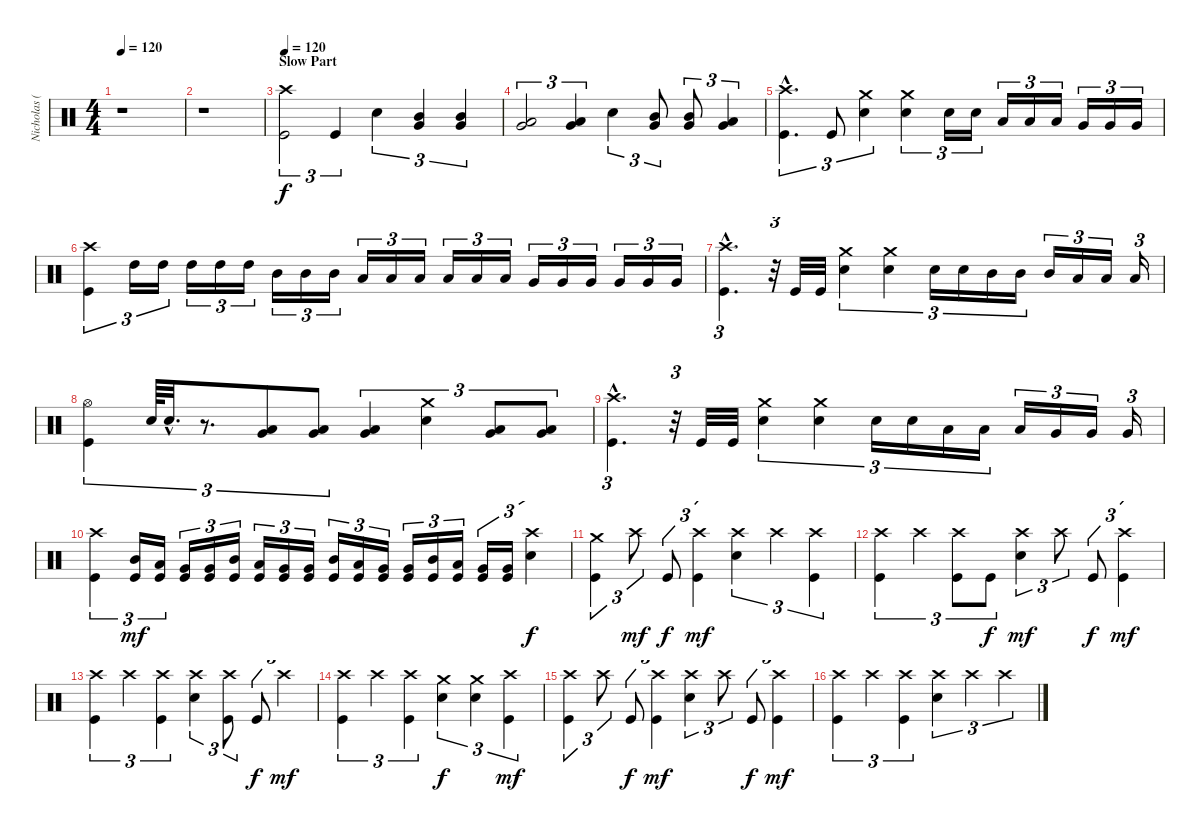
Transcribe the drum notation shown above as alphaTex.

\track ("Nicholas (Drums)" "Nicholas (") {instrument percussion}
\staff {score}
\articulation defaults
\ts (4 4)
\tempo 120
\clef neutral
\ks c
r.1{dy p} |
r.1 |
\section ("" "Slow Part")
\tempo 120
("Crash high (hit)" "Kick (hit)").2{tu (3 2) dy f} "Kick (hit)".4{tu (3 2)} "Electric Snare (hit)".4{tu (3 2)} ("Mid Tom (hit)" "Very Low Tom (hit)").4{tu (3 2)} ("Mid Tom (hit)" "Very Low Tom (hit)").4{tu (3 2)} |
("Low Tom (hit)" "Very Low Tom (hit)").2{tu (3 2)} ("Low Tom (hit)" "Very Low Tom (hit)").4{tu (3 2)} "Electric Snare (hit)".4{tu (3 2)} ("Mid Tom (hit)" "Very Low Tom (hit)").8{tu (3 2)} ("Mid Tom (hit)" "Very Low Tom (hit)").8{tu (3 2)} ("Low Tom (hit)" "Very Low Tom (hit)").4{tu (3 2)} |
("Crash high (hit)"{hac} "Kick (hit)"{hac}).4{d tu (3 2)} "Kick (hit)".8{tu (3 2)} ("Crash medium (hit)" "Electric Snare (hit)").4{tu (3 2)} ("Crash medium (hit)" "Electric Snare (hit)").4{tu (3 2)} "Electric Snare (hit)".16{tu (3 2)} "Electric Snare (hit)".16{tu (3 2)} "Low Tom (hit)".16{tu (3 2)} "Low Tom (hit)".16{tu (3 2)} "Low Tom (hit)".16{tu (3 2)} "Very Low Tom (hit)".16{tu (3 2)} "Very Low Tom (hit)".16{tu (3 2)} "Very Low Tom (hit)".16{tu (3 2)} |
("Crash high (hit)" "Kick (hit)").4{tu (3 2)} "High Tom (hit)".16{tu (3 2)} "High Tom (hit)".16{tu (3 2)} "High Tom (hit)".16{tu (3 2)} "High Tom (hit)".16{tu (3 2)} "High Tom (hit)".16{tu (3 2)} "Mid Tom (hit)".16{tu (3 2)} "Mid Tom (hit)".16{tu (3 2)} "Mid Tom (hit)".16{tu (3 2)} "Low Tom (hit)".16{tu (3 2)} "Low Tom (hit)".16{tu (3 2)} "Low Tom (hit)".16{tu (3 2)} "Low Tom (hit)".16{tu (3 2)} "Low Tom (hit)".16{tu (3 2)} "Low Tom (hit)".16{tu (3 2)} "Very Low Tom (hit)".16{tu (3 2)} "Very Low Tom (hit)".16{tu (3 2)} "Very Low Tom (hit)".16{tu (3 2)} "Very Low Tom (hit)".16{tu (3 2)} "Very Low Tom (hit)".16{tu (3 2)} "Very Low Tom (hit)".16{tu (3 2)} |
("Crash high (hit)"{hac} "Kick (hit)"{hac}).4{d tu (3 2)} r.32{tu (3 2)} "Kick (hit)".32 "Kick (hit)".32 ("Crash medium (hit)" "Electric Snare (hit)").4{tu (3 2)} ("Crash medium (hit)" "Electric Snare (hit)").4{tu (3 2)} "Electric Snare (hit)".16{tu (3 2)} "Electric Snare (hit)".16{tu (3 2)} "Mid Tom (hit)".16{tu (3 2)} "Mid Tom (hit)".16{tu (3 2)} "Mid Tom (hit)".16{tu (3 2)} "Low Tom (hit)".16{tu (3 2)} "Low Tom (hit)".16{tu (3 2)} "Low Tom (hit)".16{tu (3 2)} |
("Hi-Hat (open)" "Kick (hit)").4{tu (3 2)} "Electric Snare (hit)".64{tu (3 2)} "Electric Snare (hit)"{hac}.32{d tu (3 2)} r.8{d tu (3 2)} ("Low Tom (hit)" "Very Low Tom (hit)").8{tu (3 2)} ("Low Tom (hit)" "Very Low Tom (hit)").8{tu (3 2)} ("Low Tom (hit)" "Very Low Tom (hit)").4{tu (3 2)} ("Crash medium (hit)" "Electric Snare (hit)").4{tu (3 2)} ("Low Tom (hit)" "Very Low Tom (hit)").8{tu (3 2)} ("Low Tom (hit)" "Very Low Tom (hit)").8{tu (3 2)} |
("Crash high (hit)"{hac} "Kick (hit)"{hac}).4{d tu (3 2)} r.32{tu (3 2)} "Kick (hit)".32 "Kick (hit)".32 ("Crash medium (hit)" "Electric Snare (hit)").4{tu (3 2)} ("Crash medium (hit)" "Electric Snare (hit)").4{tu (3 2)} "Electric Snare (hit)".16{tu (3 2)} "Electric Snare (hit)".16{tu (3 2)} "Low Tom (hit)".16{tu (3 2)} "Low Tom (hit)".16{tu (3 2)} "Low Tom (hit)".16{tu (3 2)} "Very Low Tom (hit)".16{tu (3 2)} "Very Low Tom (hit)".16{tu (3 2)} "Very Low Tom (hit)".16{tu (3 2)} |
("Crash high (hit)" "Kick (hit)").4{tu (3 2)} ("Mid Tom (hit)" "Kick (hit)").16{tu (3 2) dy mf} ("Low Tom (hit)" "Kick (hit)").16{tu (3 2)} ("Very Low Tom (hit)" "Kick (hit)").16{tu (3 2)} ("Very Low Tom (hit)" "Kick (hit)").16{tu (3 2)} ("Mid Tom (hit)" "Kick (hit)").16{tu (3 2)} ("Low Tom (hit)" "Kick (hit)").16{tu (3 2)} ("Very Low Tom (hit)" "Kick (hit)").16{tu (3 2)} ("Very Low Tom (hit)" "Kick (hit)").16{tu (3 2)} ("Mid Tom (hit)" "Kick (hit)").16{tu (3 2)} ("Low Tom (hit)" "Kick (hit)").16{tu (3 2)} ("Very Low Tom (hit)" "Kick (hit)").16{tu (3 2)} ("Very Low Tom (hit)" "Kick (hit)").16{tu (3 2)} ("Mid Tom (hit)" "Kick (hit)").16{tu (3 2)} ("Low Tom (hit)" "Kick (hit)").16{tu (3 2)} ("Very Low Tom (hit)" "Kick (hit)").16{tu (3 2)} ("Very Low Tom (hit)" "Kick (hit)").16{tu (3 2)} ("Crash high (hit)" "Electric Snare (hit)").4{tu (3 2) dy f} |
("Crash medium (hit)" "Kick (hit)").4{tu (3 2)} "Crash high (hit)".8{tu (3 2) dy mf} "Kick (hit)".8{tu (3 2) dy f} ("Crash high (hit)" "Kick (hit)").4{tu (3 2) dy mf} ("Crash high (hit)" "Electric Snare (hit)").4{tu (3 2)} "Crash high (hit)".4{tu (3 2)} ("Crash high (hit)" "Kick (hit)").4{tu (3 2)} |
("Crash high (hit)" "Kick (hit)").4{tu (3 2)} "Crash high (hit)".4{tu (3 2)} ("Crash high (hit)" "Kick (hit)").8{tu (3 2)} "Kick (hit)".8{tu (3 2) dy f} ("Crash high (hit)" "Electric Snare (hit)").4{tu (3 2) dy mf} "Crash high (hit)".8{tu (3 2)} "Kick (hit)".8{tu (3 2) dy f} ("Crash high (hit)" "Kick (hit)").4{tu (3 2) dy mf} |
("Crash high (hit)" "Kick (hit)").4{tu (3 2)} "Crash high (hit)".4{tu (3 2)} ("Crash high (hit)" "Kick (hit)").4{tu (3 2)} ("Crash high (hit)" "Electric Snare (hit)").4{tu (3 2)} ("Crash high (hit)" "Kick (hit)").8{tu (3 2)} "Kick (hit)".8{tu (3 2) dy f} "Crash high (hit)".4{tu (3 2) dy mf} |
("Crash high (hit)" "Kick (hit)").4{tu (3 2)} "Crash high (hit)".4{tu (3 2)} ("Crash high (hit)" "Kick (hit)").4{tu (3 2)} ("Crash medium (hit)" "Electric Snare (hit)").4{tu (3 2) dy f} ("Crash medium (hit)" "Electric Snare (hit)").4{tu (3 2)} ("Crash high (hit)" "Kick (hit)").4{tu (3 2) dy mf} |
("Crash high (hit)" "Kick (hit)").4{tu (3 2)} "Crash high (hit)".8{tu (3 2)} "Kick (hit)".8{tu (3 2) dy f} ("Crash high (hit)" "Kick (hit)").4{tu (3 2) dy mf} ("Crash high (hit)" "Electric Snare (hit)").4{tu (3 2)} "Crash high (hit)".8{tu (3 2)} "Kick (hit)".8{tu (3 2) dy f} ("Crash high (hit)" "Kick (hit)").4{tu (3 2) dy mf} |
("Crash high (hit)" "Kick (hit)").4{tu (3 2)} "Crash high (hit)".4{tu (3 2)} ("Crash high (hit)" "Kick (hit)").4{tu (3 2)} ("Crash high (hit)" "Electric Snare (hit)").4{tu (3 2)} "Crash high (hit)".4{tu (3 2)} "Crash high (hit)".4{tu (3 2)}
